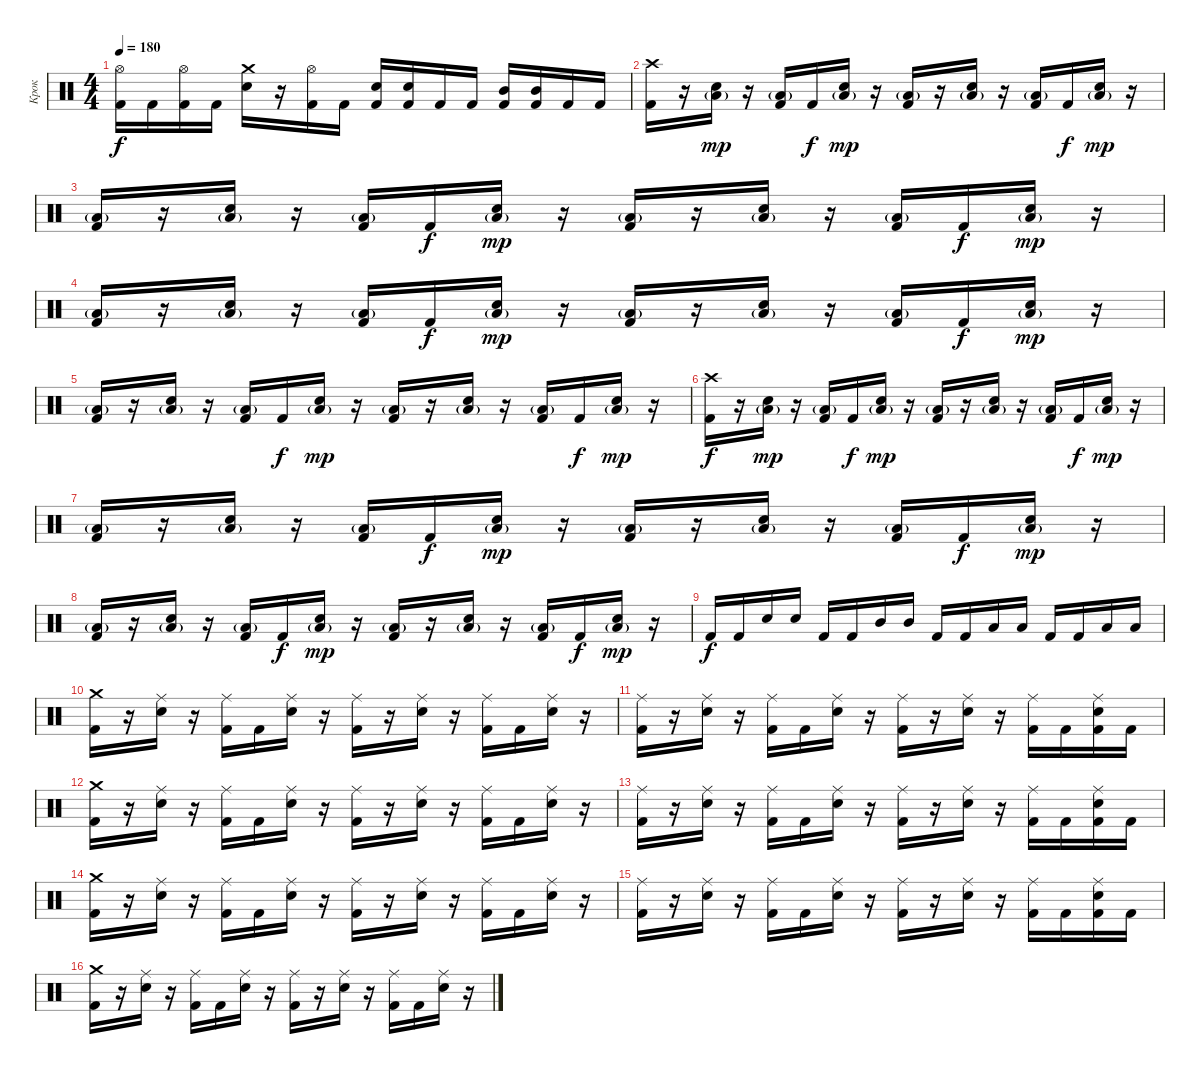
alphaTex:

\track ("Крок" "Крок") {instrument percussion}
\staff {score}
\articulation defaults
\ts (4 4)
\tempo 180
\clef neutral
\ks c
("Kick (hit) 2" "Hi-Hat (open)").16{dy f} "Kick (hit) 2".16 ("Kick (hit) 2" "Hi-Hat (open)").16 "Kick (hit) 2".16 ("Electric Snare (hit)" "Crash medium (hit)").16 r.16 ("Kick (hit) 2" "Hi-Hat (open)").16 "Kick (hit) 2".16 ("Kick (hit) 2" "Electric Snare (hit)").16 ("Kick (hit) 2" "Electric Snare (hit)").16 "Kick (hit) 2".16 "Kick (hit) 2".16 ("Kick (hit) 2" "Mid Tom (hit)").16 ("Kick (hit) 2" "Mid Tom (hit)").16 "Kick (hit) 2".16 "Kick (hit) 2".16 |
("Kick (hit) 2" "Crash high (hit)").16 r.16 ("Electric Snare (hit)" "Low Floor Tom (hit)"{g}).16{dy mp} r.16 ("Kick (hit) 2" "Low Floor Tom (hit)"{g}).16 "Kick (hit) 2".16{dy f} ("Electric Snare (hit)" "Low Floor Tom (hit)"{g}).16{dy mp} r.16 ("Kick (hit) 2" "Low Floor Tom (hit)"{g}).16 r.16 ("Electric Snare (hit)" "Low Floor Tom (hit)"{g}).16 r.16 ("Kick (hit) 2" "Low Floor Tom (hit)"{g}).16 "Kick (hit) 2".16{dy f} ("Electric Snare (hit)" "Low Floor Tom (hit)"{g}).16{dy mp} r.16 |
("Kick (hit) 2" "Low Floor Tom (hit)"{g}).16 r.16 ("Electric Snare (hit)" "Low Floor Tom (hit)"{g}).16 r.16 ("Kick (hit) 2" "Low Floor Tom (hit)"{g}).16 "Kick (hit) 2".16{dy f} ("Electric Snare (hit)" "Low Floor Tom (hit)"{g}).16{dy mp} r.16 ("Kick (hit) 2" "Low Floor Tom (hit)"{g}).16 r.16 ("Electric Snare (hit)" "Low Floor Tom (hit)"{g}).16 r.16 ("Kick (hit) 2" "Low Floor Tom (hit)"{g}).16 "Kick (hit) 2".16{dy f} ("Electric Snare (hit)" "Low Floor Tom (hit)"{g}).16{dy mp} r.16 |
("Kick (hit) 2" "Low Floor Tom (hit)"{g}).16 r.16 ("Electric Snare (hit)" "Low Floor Tom (hit)"{g}).16 r.16 ("Kick (hit) 2" "Low Floor Tom (hit)"{g}).16 "Kick (hit) 2".16{dy f} ("Electric Snare (hit)" "Low Floor Tom (hit)"{g}).16{dy mp} r.16 ("Kick (hit) 2" "Low Floor Tom (hit)"{g}).16 r.16 ("Electric Snare (hit)" "Low Floor Tom (hit)"{g}).16 r.16 ("Kick (hit) 2" "Low Floor Tom (hit)"{g}).16 "Kick (hit) 2".16{dy f} ("Electric Snare (hit)" "Low Floor Tom (hit)"{g}).16{dy mp} r.16 |
("Kick (hit) 2" "Low Floor Tom (hit)"{g}).16 r.16 ("Electric Snare (hit)" "Low Floor Tom (hit)"{g}).16 r.16 ("Kick (hit) 2" "Low Floor Tom (hit)"{g}).16 "Kick (hit) 2".16{dy f} ("Electric Snare (hit)" "Low Floor Tom (hit)"{g}).16{dy mp} r.16 ("Kick (hit) 2" "Low Floor Tom (hit)"{g}).16 r.16 ("Electric Snare (hit)" "Low Floor Tom (hit)"{g}).16 r.16 ("Kick (hit) 2" "Low Floor Tom (hit)"{g}).16 "Kick (hit) 2".16{dy f} ("Electric Snare (hit)" "Low Floor Tom (hit)"{g}).16{dy mp} r.16 |
("Kick (hit) 2" "Crash high (hit)").16{dy f} r.16 ("Electric Snare (hit)" "Low Floor Tom (hit)"{g}).16{dy mp} r.16 ("Kick (hit) 2" "Low Floor Tom (hit)"{g}).16 "Kick (hit) 2".16{dy f} ("Electric Snare (hit)" "Low Floor Tom (hit)"{g}).16{dy mp} r.16 ("Kick (hit) 2" "Low Floor Tom (hit)"{g}).16 r.16 ("Electric Snare (hit)" "Low Floor Tom (hit)"{g}).16 r.16 ("Kick (hit) 2" "Low Floor Tom (hit)"{g}).16 "Kick (hit) 2".16{dy f} ("Electric Snare (hit)" "Low Floor Tom (hit)"{g}).16{dy mp} r.16 |
("Kick (hit) 2" "Low Floor Tom (hit)"{g}).16 r.16 ("Electric Snare (hit)" "Low Floor Tom (hit)"{g}).16 r.16 ("Kick (hit) 2" "Low Floor Tom (hit)"{g}).16 "Kick (hit) 2".16{dy f} ("Electric Snare (hit)" "Low Floor Tom (hit)"{g}).16{dy mp} r.16 ("Kick (hit) 2" "Low Floor Tom (hit)"{g}).16 r.16 ("Electric Snare (hit)" "Low Floor Tom (hit)"{g}).16 r.16 ("Kick (hit) 2" "Low Floor Tom (hit)"{g}).16 "Kick (hit) 2".16{dy f} ("Electric Snare (hit)" "Low Floor Tom (hit)"{g}).16{dy mp} r.16 |
("Kick (hit) 2" "Low Floor Tom (hit)"{g}).16 r.16 ("Electric Snare (hit)" "Low Floor Tom (hit)"{g}).16 r.16 ("Kick (hit) 2" "Low Floor Tom (hit)"{g}).16 "Kick (hit) 2".16{dy f} ("Electric Snare (hit)" "Low Floor Tom (hit)"{g}).16{dy mp} r.16 ("Kick (hit) 2" "Low Floor Tom (hit)"{g}).16 r.16 ("Electric Snare (hit)" "Low Floor Tom (hit)"{g}).16 r.16 ("Kick (hit) 2" "Low Floor Tom (hit)"{g}).16 "Kick (hit) 2".16{dy f} ("Electric Snare (hit)" "Low Floor Tom (hit)"{g}).16{dy mp} r.16 |
"Kick (hit) 2".16{dy f} "Kick (hit) 2".16 "Electric Snare (hit)".16 "Electric Snare (hit)".16 "Kick (hit) 2".16 "Kick (hit) 2".16 "Mid Tom (hit)".16 "Mid Tom (hit)".16 "Kick (hit) 2".16 "Kick (hit) 2".16 "Low Tom (hit)".16 "Low Tom (hit)".16 "Kick (hit) 2".16 "Kick (hit) 2".16 "Low Floor Tom (hit)".16 "Low Floor Tom (hit)".16 |
("Kick (hit) 2" "Crash medium (hit)").16 r.16 ("Electric Snare (hit)" "Ride (middle)").16 r.16 ("Kick (hit) 2" "Ride (middle)").16 "Kick (hit) 2".16 ("Electric Snare (hit)" "Ride (middle)").16 r.16 ("Kick (hit) 2" "Ride (middle)").16 r.16 ("Electric Snare (hit)" "Ride (middle)").16 r.16 ("Kick (hit) 2" "Ride (middle)").16 "Kick (hit) 2".16 ("Electric Snare (hit)" "Ride (middle)").16 r.16 |
("Kick (hit) 2" "Ride (middle)").16 r.16 ("Electric Snare (hit)" "Ride (middle)").16 r.16 ("Kick (hit) 2" "Ride (middle)").16 "Kick (hit) 2".16 ("Electric Snare (hit)" "Ride (middle)").16 r.16 ("Kick (hit) 2" "Ride (middle)").16 r.16 ("Electric Snare (hit)" "Ride (middle)").16 r.16 ("Kick (hit) 2" "Ride (middle)").16 "Kick (hit) 2".16 ("Kick (hit) 2" "Electric Snare (hit)" "Ride (middle)").16 "Kick (hit) 2".16 |
("Kick (hit) 2" "Crash medium (hit)").16 r.16 ("Electric Snare (hit)" "Ride (middle)").16 r.16 ("Kick (hit) 2" "Ride (middle)").16 "Kick (hit) 2".16 ("Electric Snare (hit)" "Ride (middle)").16 r.16 ("Kick (hit) 2" "Ride (middle)").16 r.16 ("Electric Snare (hit)" "Ride (middle)").16 r.16 ("Kick (hit) 2" "Ride (middle)").16 "Kick (hit) 2".16 ("Electric Snare (hit)" "Ride (middle)").16 r.16 |
("Kick (hit) 2" "Ride (middle)").16 r.16 ("Electric Snare (hit)" "Ride (middle)").16 r.16 ("Kick (hit) 2" "Ride (middle)").16 "Kick (hit) 2".16 ("Electric Snare (hit)" "Ride (middle)").16 r.16 ("Kick (hit) 2" "Ride (middle)").16 r.16 ("Electric Snare (hit)" "Ride (middle)").16 r.16 ("Kick (hit) 2" "Ride (middle)").16 "Kick (hit) 2".16 ("Kick (hit) 2" "Electric Snare (hit)" "Ride (middle)").16 "Kick (hit) 2".16 |
("Kick (hit) 2" "Crash medium (hit)").16 r.16 ("Electric Snare (hit)" "Ride (middle)").16 r.16 ("Kick (hit) 2" "Ride (middle)").16 "Kick (hit) 2".16 ("Electric Snare (hit)" "Ride (middle)").16 r.16 ("Kick (hit) 2" "Ride (middle)").16 r.16 ("Electric Snare (hit)" "Ride (middle)").16 r.16 ("Kick (hit) 2" "Ride (middle)").16 "Kick (hit) 2".16 ("Electric Snare (hit)" "Ride (middle)").16 r.16 |
("Kick (hit) 2" "Ride (middle)").16 r.16 ("Electric Snare (hit)" "Ride (middle)").16 r.16 ("Kick (hit) 2" "Ride (middle)").16 "Kick (hit) 2".16 ("Electric Snare (hit)" "Ride (middle)").16 r.16 ("Kick (hit) 2" "Ride (middle)").16 r.16 ("Electric Snare (hit)" "Ride (middle)").16 r.16 ("Kick (hit) 2" "Ride (middle)").16 "Kick (hit) 2".16 ("Kick (hit) 2" "Electric Snare (hit)" "Ride (middle)").16 "Kick (hit) 2".16 |
("Kick (hit) 2" "Crash medium (hit)").16 r.16 ("Electric Snare (hit)" "Ride (middle)").16 r.16 ("Kick (hit) 2" "Ride (middle)").16 "Kick (hit) 2".16 ("Electric Snare (hit)" "Ride (middle)").16 r.16 ("Kick (hit) 2" "Ride (middle)").16 r.16 ("Electric Snare (hit)" "Ride (middle)").16 r.16 ("Kick (hit) 2" "Ride (middle)").16 "Kick (hit) 2".16 ("Electric Snare (hit)" "Ride (middle)").16 r.16
